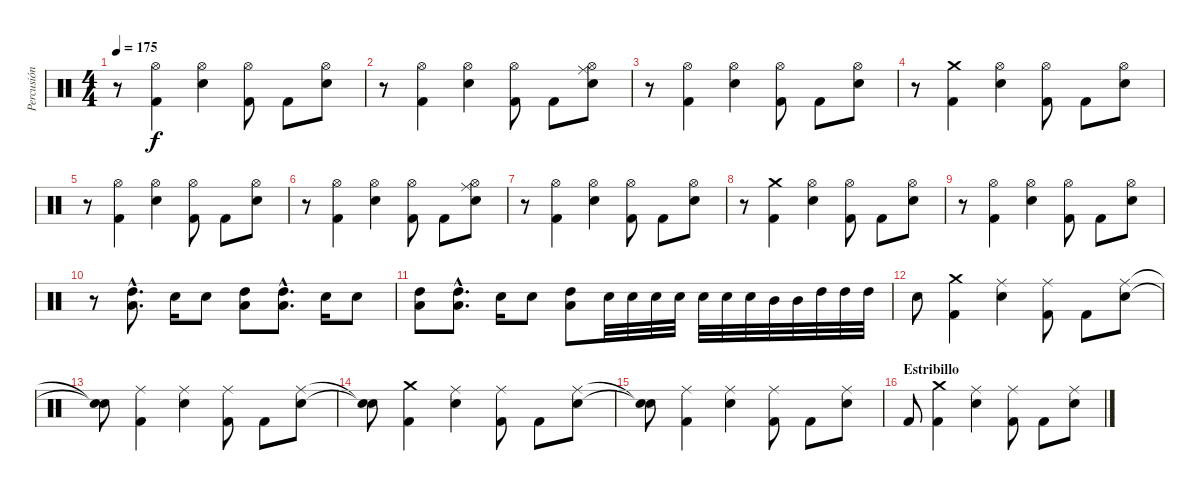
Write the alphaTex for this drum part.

\track ("Percusión" "Percusión") {instrument percussion}
\staff {score}
\articulation defaults
\ts (4 4)
\tempo 175
\clef neutral
\ks c
r.8{dy f} ("Kick (hit) 2" "Hi-Hat (open)").4 ("Hi-Hat (open)" "Snare (hit) 2").4 ("Kick (hit) 2" "Hi-Hat (open)").8 "Kick (hit) 2".8 ("Hi-Hat (open)" "Snare (hit) 2").8 |
r.8 ("Kick (hit) 2" "Hi-Hat (open)").4 ("Hi-Hat (open)" "Snare (hit) 2").4 ("Kick (hit) 2" "Hi-Hat (open)").8 "Kick (hit) 2".8 ("Ride (middle)" "Hi-Hat (open)" "Snare (hit) 2").8 |
r.8 ("Kick (hit) 2" "Hi-Hat (open)").4 ("Hi-Hat (open)" "Snare (hit) 2").4 ("Kick (hit) 2" "Hi-Hat (open)").8 "Kick (hit) 2".8 ("Hi-Hat (open)" "Snare (hit) 2").8 |
r.8 ("Kick (hit) 2" "Crash medium (hit)").4 ("Hi-Hat (open)" "Snare (hit) 2").4 ("Kick (hit) 2" "Hi-Hat (open)").8 "Kick (hit) 2".8 ("Hi-Hat (open)" "Snare (hit) 2").8 |
r.8 ("Kick (hit) 2" "Hi-Hat (open)").4 ("Hi-Hat (open)" "Snare (hit) 2").4 ("Kick (hit) 2" "Hi-Hat (open)").8 "Kick (hit) 2".8 ("Hi-Hat (open)" "Snare (hit) 2").8 |
r.8 ("Kick (hit) 2" "Hi-Hat (open)").4 ("Hi-Hat (open)" "Snare (hit) 2").4 ("Kick (hit) 2" "Hi-Hat (open)").8 "Kick (hit) 2".8 ("Ride (middle)" "Hi-Hat (open)" "Snare (hit) 2").8 |
r.8 ("Kick (hit) 2" "Hi-Hat (open)").4 ("Hi-Hat (open)" "Snare (hit) 2").4 ("Kick (hit) 2" "Hi-Hat (open)").8 "Kick (hit) 2".8 ("Hi-Hat (open)" "Snare (hit) 2").8 |
r.8 ("Kick (hit) 2" "Crash medium (hit)").4 ("Hi-Hat (open)" "Snare (hit) 2").4 ("Kick (hit) 2" "Hi-Hat (open)").8 "Kick (hit) 2".8 ("Hi-Hat (open)" "Snare (hit) 2").8 |
r.8 ("Kick (hit) 2" "Hi-Hat (open)").4 ("Hi-Hat (open)" "Snare (hit) 2").4 ("Kick (hit) 2" "Hi-Hat (open)").8 "Kick (hit) 2".8 ("Hi-Hat (open)" "Snare (hit) 2").8 |
r.8 ("High Tom (hit)"{hac} "Low Tom (hit)"{hac}).8{d} "Snare (hit) 2".16 "Snare (hit) 2".8 ("High Tom (hit)" "Low Tom (hit)").8 ("High Tom (hit)"{hac} "Low Tom (hit)"{hac}).8{d} "Snare (hit) 2".16 "Snare (hit) 2".8 |
("High Tom (hit)" "Low Tom (hit)").8 ("High Tom (hit)"{hac} "Low Tom (hit)"{hac}).8{d} "Snare (hit) 2".16 "Snare (hit) 2".8 ("High Tom (hit)" "Low Tom (hit)").8 "Snare (hit) 2".32 "Snare (hit) 2".32 "Snare (hit) 2".32 "Snare (hit) 2".32 "Snare (hit) 2".32 "Snare (hit) 2".32 "Snare (hit) 2".32 "Mid Tom (hit)".32 "Mid Tom (hit)".32 "High Tom (hit)".32 "High Tom (hit)".32 "High Tom (hit)".32 |
"Snare (hit) 2".8 ("Crash medium (hit)" "Kick (hit) 2").4 ("Snare (hit) 2" "Ride (middle)").4 ("Ride (middle)" "Kick (hit) 2").8 "Kick (hit) 2".8 ("Ride (middle)" "Snare (hit) 2").8 |
("Snare (hit)"{t} "Snare (hit) 2"{t}).8 ("Ride (middle)" "Kick (hit) 2").4 ("Snare (hit) 2" "Ride (middle)").4 ("Ride (middle)" "Kick (hit) 2").8 "Kick (hit) 2".8 ("Ride (middle)" "Snare (hit) 2").8 |
("Snare (hit)"{t} "Snare (hit) 2"{t}).8 ("Crash medium (hit)" "Kick (hit) 2").4 ("Snare (hit) 2" "Ride (middle)").4 ("Ride (middle)" "Kick (hit) 2").8 "Kick (hit) 2".8 ("Ride (middle)" "Snare (hit) 2").8 |
("Snare (hit)"{t} "Snare (hit) 2"{t}).8 ("Ride (middle)" "Kick (hit) 2").4 ("Snare (hit) 2" "Ride (middle)").4 ("Ride (middle)" "Kick (hit) 2").8 "Kick (hit) 2".8 ("Ride (middle)" "Snare (hit) 2").8 |
\section ("" "Estribillo")
"Kick (hit) 2".8 ("Crash medium (hit)" "Kick (hit) 2").4 ("Snare (hit) 2" "Ride (middle)").4 ("Ride (middle)" "Kick (hit) 2").8 "Kick (hit) 2".8 ("Ride (middle)" "Snare (hit) 2").8
